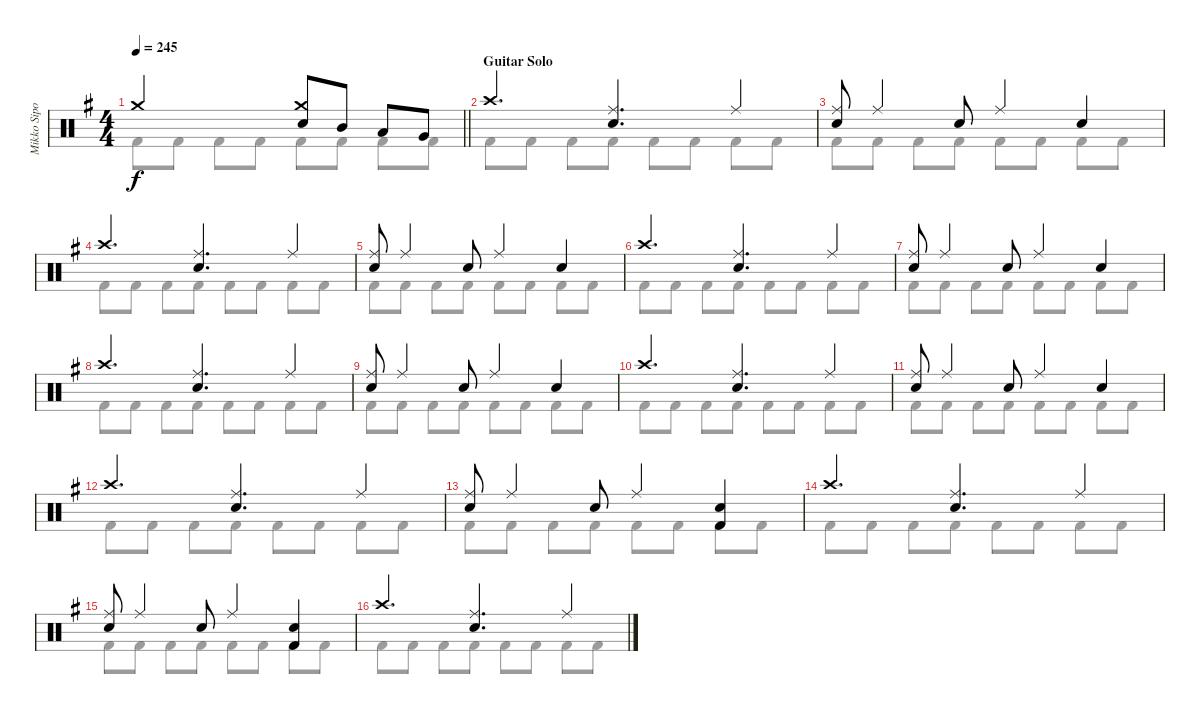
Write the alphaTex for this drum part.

\track ("Mikko Sipola (drums)" "Mikko Sipo") {instrument percussion}
\staff {score}
\articulation defaults
\voice
\ts (4 4)
\tempo 245
\clef neutral
\barLineRight lightlight
\ks eminor "Crash medium (hit)".2{dy f}
("Crash medium (hit)" "Electric Snare (hit)").8 "Mid Tom (hit)".8 "Low Tom (hit)".8 "Very Low Tom (hit)".8 |
\section ("" "Guitar Solo")
"Crash high (hit)".4{d} ("Ride (middle)" "Electric Snare (hit)").4{d} "Ride (middle)".4 |
("Ride (middle)" "Electric Snare (hit)").8 "Ride (middle)".4 "Electric Snare (hit)".8 "Ride (middle)".4 "Electric Snare (hit)".4 |
"Crash high (hit)".4{d} ("Ride (middle)" "Electric Snare (hit)").4{d} "Ride (middle)".4 |
("Ride (middle)" "Electric Snare (hit)").8 "Ride (middle)".4 "Electric Snare (hit)".8 "Ride (middle)".4 "Electric Snare (hit)".4 |
"Crash high (hit)".4{d} ("Ride (middle)" "Electric Snare (hit)").4{d} "Ride (middle)".4 |
("Ride (middle)" "Electric Snare (hit)").8 "Ride (middle)".4 "Electric Snare (hit)".8 "Ride (middle)".4 "Electric Snare (hit)".4 |
"Crash high (hit)".4{d} ("Ride (middle)" "Electric Snare (hit)").4{d} "Ride (middle)".4 |
("Ride (middle)" "Electric Snare (hit)").8 "Ride (middle)".4 "Electric Snare (hit)".8 "Ride (middle)".4 "Electric Snare (hit)".4 |
"Crash high (hit)".4{d} ("Ride (middle)" "Electric Snare (hit)").4{d} "Ride (middle)".4 |
("Ride (middle)" "Electric Snare (hit)").8 "Ride (middle)".4 "Electric Snare (hit)".8 "Ride (middle)".4 "Electric Snare (hit)".4 |
"Crash high (hit)".4{d} ("Ride (middle)" "Electric Snare (hit)").4{d} "Ride (middle)".4 |
("Ride (middle)" "Electric Snare (hit)").8 "Ride (middle)".4 "Electric Snare (hit)".8 "Ride (middle)".4 ("Electric Snare (hit)" "Kick (hit) 2").4 |
"Crash high (hit)".4{d} ("Ride (middle)" "Electric Snare (hit)").4{d} "Ride (middle)".4 |
("Ride (middle)" "Electric Snare (hit)").8 "Ride (middle)".4 "Electric Snare (hit)".8 "Ride (middle)".4 ("Electric Snare (hit)" "Kick (hit) 2").4 |
"Crash high (hit)".4{d} ("Ride (middle)" "Electric Snare (hit)").4{d} "Ride (middle)".4
\voice
\clef neutral
\ottava regular
\simile none
\barLineRight lightlight
\ks eminor "Kick (hit) 2".8{dy f} "Kick (hit) 2".8 "Kick (hit) 2".8 "Kick (hit) 2".8 "Kick (hit) 2".8 "Kick (hit) 2".8 "Kick (hit) 2".8 "Kick (hit) 2".8
|
"Kick (hit) 2".8 "Kick (hit) 2".8 "Kick (hit) 2".8 "Kick (hit) 2".8 "Kick (hit) 2".8 "Kick (hit) 2".8 "Kick (hit) 2".8 "Kick (hit) 2".8 |
"Kick (hit) 2".8 "Kick (hit) 2".8 "Kick (hit) 2".8 "Kick (hit) 2".8 "Kick (hit) 2".8 "Kick (hit) 2".8 "Kick (hit) 2".8 "Kick (hit) 2".8 |
"Kick (hit) 2".8 "Kick (hit) 2".8 "Kick (hit) 2".8 "Kick (hit) 2".8 "Kick (hit) 2".8 "Kick (hit) 2".8 "Kick (hit) 2".8 "Kick (hit) 2".8 |
"Kick (hit) 2".8 "Kick (hit) 2".8 "Kick (hit) 2".8 "Kick (hit) 2".8 "Kick (hit) 2".8 "Kick (hit) 2".8 "Kick (hit) 2".8 "Kick (hit) 2".8 |
"Kick (hit) 2".8 "Kick (hit) 2".8 "Kick (hit) 2".8 "Kick (hit) 2".8 "Kick (hit) 2".8 "Kick (hit) 2".8 "Kick (hit) 2".8 "Kick (hit) 2".8 |
"Kick (hit) 2".8 "Kick (hit) 2".8 "Kick (hit) 2".8 "Kick (hit) 2".8 "Kick (hit) 2".8 "Kick (hit) 2".8 "Kick (hit) 2".8 "Kick (hit) 2".8 |
"Kick (hit) 2".8 "Kick (hit) 2".8 "Kick (hit) 2".8 "Kick (hit) 2".8 "Kick (hit) 2".8 "Kick (hit) 2".8 "Kick (hit) 2".8 "Kick (hit) 2".8 |
"Kick (hit) 2".8 "Kick (hit) 2".8 "Kick (hit) 2".8 "Kick (hit) 2".8 "Kick (hit) 2".8 "Kick (hit) 2".8 "Kick (hit) 2".8 "Kick (hit) 2".8 |
"Kick (hit) 2".8 "Kick (hit) 2".8 "Kick (hit) 2".8 "Kick (hit) 2".8 "Kick (hit) 2".8 "Kick (hit) 2".8 "Kick (hit) 2".8 "Kick (hit) 2".8 |
"Kick (hit) 2".8 "Kick (hit) 2".8 "Kick (hit) 2".8 "Kick (hit) 2".8 "Kick (hit) 2".8 "Kick (hit) 2".8 "Kick (hit) 2".8 "Kick (hit) 2".8 |
"Kick (hit) 2".8 "Kick (hit) 2".8 "Kick (hit) 2".8 "Kick (hit) 2".8 "Kick (hit) 2".8 "Kick (hit) 2".8 "Kick (hit) 2".8 "Kick (hit) 2".8 |
"Kick (hit) 2".8 "Kick (hit) 2".8 "Kick (hit) 2".8 "Kick (hit) 2".8 "Kick (hit) 2".8 "Kick (hit) 2".8 "Kick (hit) 2".8 "Kick (hit) 2".8 |
"Kick (hit) 2".8 "Kick (hit) 2".8 "Kick (hit) 2".8 "Kick (hit) 2".8 "Kick (hit) 2".8 "Kick (hit) 2".8 "Kick (hit) 2".8 "Kick (hit) 2".8 |
"Kick (hit) 2".8 "Kick (hit) 2".8 "Kick (hit) 2".8 "Kick (hit) 2".8 "Kick (hit) 2".8 "Kick (hit) 2".8 "Kick (hit) 2".8 "Kick (hit) 2".8 |
"Kick (hit) 2".8 "Kick (hit) 2".8 "Kick (hit) 2".8 "Kick (hit) 2".8 "Kick (hit) 2".8 "Kick (hit) 2".8 "Kick (hit) 2".8 "Kick (hit) 2".8
